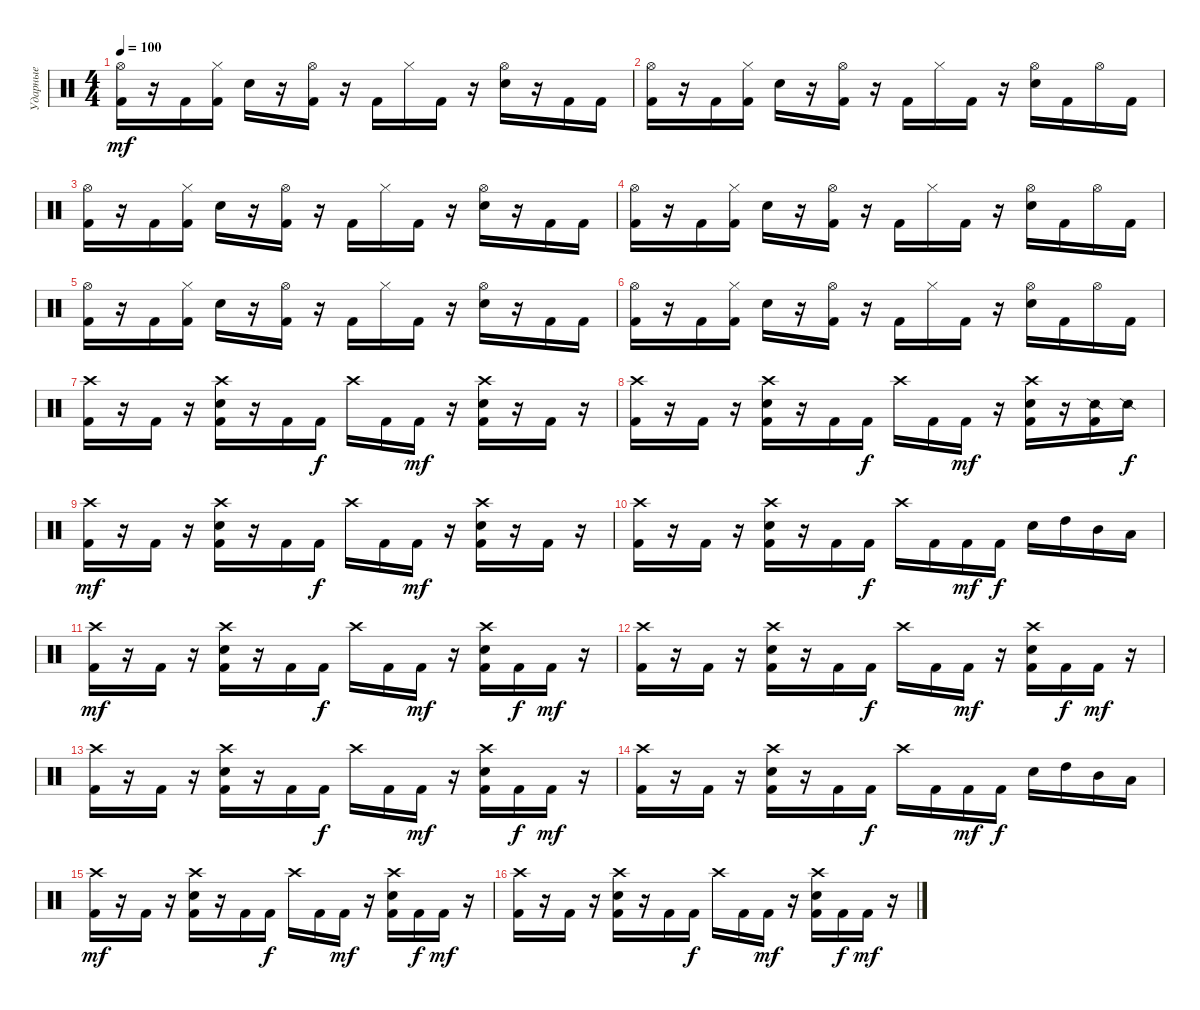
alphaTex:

\track ("Ударные" "Ударные") {instrument percussion}
\staff {score}
\articulation defaults
\ts (4 4)
\tempo 100
\clef neutral
\ks c
("Hi-Hat (open)" "Kick (hit) 2").16{dy mf} r.16 "Kick (hit) 2".16 ("Hi-Hat (closed)" "Kick (hit) 2").16 "Electric Snare (hit)".16 r.16 ("Hi-Hat (open)" "Kick (hit) 2").16 r.16 "Kick (hit) 2".16 "Hi-Hat (closed)".16 "Kick (hit) 2".16 r.16 ("Hi-Hat (open)" "Electric Snare (hit)").16 r.16 "Kick (hit) 2".16 "Kick (hit) 2".16 |
("Hi-Hat (open)" "Kick (hit) 2").16 r.16 "Kick (hit) 2".16 ("Hi-Hat (closed)" "Kick (hit) 2").16 "Electric Snare (hit)".16 r.16 ("Hi-Hat (open)" "Kick (hit) 2").16 r.16 "Kick (hit) 2".16 "Hi-Hat (closed)".16 "Kick (hit) 2".16 r.16 ("Hi-Hat (open)" "Electric Snare (hit)").16 "Kick (hit) 2".16 "Hi-Hat (open)".16 "Kick (hit) 2".16 |
("Hi-Hat (open)" "Kick (hit) 2").16 r.16 "Kick (hit) 2".16 ("Hi-Hat (closed)" "Kick (hit) 2").16 "Electric Snare (hit)".16 r.16 ("Hi-Hat (open)" "Kick (hit) 2").16 r.16 "Kick (hit) 2".16 "Hi-Hat (closed)".16 "Kick (hit) 2".16 r.16 ("Hi-Hat (open)" "Electric Snare (hit)").16 r.16 "Kick (hit) 2".16 "Kick (hit) 2".16 |
("Hi-Hat (open)" "Kick (hit) 2").16 r.16 "Kick (hit) 2".16 ("Hi-Hat (closed)" "Kick (hit) 2").16 "Electric Snare (hit)".16 r.16 ("Hi-Hat (open)" "Kick (hit) 2").16 r.16 "Kick (hit) 2".16 "Hi-Hat (closed)".16 "Kick (hit) 2".16 r.16 ("Hi-Hat (open)" "Electric Snare (hit)").16 "Kick (hit) 2".16 "Hi-Hat (open)".16 "Kick (hit) 2".16 |
("Hi-Hat (open)" "Kick (hit) 2").16 r.16 "Kick (hit) 2".16 ("Hi-Hat (closed)" "Kick (hit) 2").16 "Electric Snare (hit)".16 r.16 ("Hi-Hat (open)" "Kick (hit) 2").16 r.16 "Kick (hit) 2".16 "Hi-Hat (closed)".16 "Kick (hit) 2".16 r.16 ("Hi-Hat (open)" "Electric Snare (hit)").16 r.16 "Kick (hit) 2".16 "Kick (hit) 2".16 |
("Hi-Hat (open)" "Kick (hit) 2").16 r.16 "Kick (hit) 2".16 ("Hi-Hat (closed)" "Kick (hit) 2").16 "Electric Snare (hit)".16 r.16 ("Hi-Hat (open)" "Kick (hit) 2").16 r.16 "Kick (hit) 2".16 "Hi-Hat (closed)".16 "Kick (hit) 2".16 r.16 ("Hi-Hat (open)" "Electric Snare (hit)").16 "Kick (hit) 2".16 "Hi-Hat (open)".16 "Kick (hit) 2".16 |
("Crash high (hit)" "Kick (hit) 2").16 r.16 "Kick (hit) 2".16 r.16 ("Crash high (hit)" "Electric Snare (hit)" "Kick (hit) 2").16 r.16 "Kick (hit) 2".16 "Kick (hit) 2".16{dy f} "Crash high (hit)".16 "Kick (hit) 2".16 "Kick (hit) 2".16{dy mf} r.16 ("Crash high (hit)" "Electric Snare (hit)" "Kick (hit) 2").16 r.16 "Kick (hit) 2".16 r.16 |
("Crash high (hit)" "Kick (hit) 2").16 r.16 "Kick (hit) 2".16 r.16 ("Crash high (hit)" "Electric Snare (hit)" "Kick (hit) 2").16 r.16 "Kick (hit) 2".16 "Kick (hit) 2".16{dy f} "Crash high (hit)".16 "Kick (hit) 2".16 "Kick (hit) 2".16{dy mf} r.16 ("Crash high (hit)" "Electric Snare (hit)" "Kick (hit) 2").16 r.16 ("Snare (side stick) 2" "Kick (hit) 2").16 "Snare (side stick) 2".16{dy f} |
("Crash high (hit)" "Kick (hit) 2").16{dy mf} r.16 "Kick (hit) 2".16 r.16 ("Crash high (hit)" "Electric Snare (hit)" "Kick (hit) 2").16 r.16 "Kick (hit) 2".16 "Kick (hit) 2".16{dy f} "Crash high (hit)".16 "Kick (hit) 2".16 "Kick (hit) 2".16{dy mf} r.16 ("Crash high (hit)" "Electric Snare (hit)" "Kick (hit) 2").16 r.16 "Kick (hit) 2".16 r.16 |
("Crash high (hit)" "Kick (hit) 2").16 r.16 "Kick (hit) 2".16 r.16 ("Crash high (hit)" "Electric Snare (hit)" "Kick (hit) 2").16 r.16 "Kick (hit) 2".16 "Kick (hit) 2".16{dy f} "Crash high (hit)".16 "Kick (hit) 2".16 "Kick (hit) 2".16{dy mf} "Kick (hit) 2".16{dy f} "Electric Snare (hit)".16 "High Tom (hit)".16 "Mid Tom (hit)".16 "Low Tom (hit)".16 |
("Crash high (hit)" "Kick (hit) 2").16{dy mf} r.16 "Kick (hit) 2".16 r.16 ("Crash high (hit)" "Electric Snare (hit)" "Kick (hit) 2").16 r.16 "Kick (hit) 2".16 "Kick (hit) 2".16{dy f} "Crash high (hit)".16 "Kick (hit) 2".16 "Kick (hit) 2".16{dy mf} r.16 ("Crash high (hit)" "Electric Snare (hit)" "Kick (hit) 2").16 "Kick (hit) 2".16{dy f} "Kick (hit) 2".16{dy mf} r.16 |
("Crash high (hit)" "Kick (hit) 2").16 r.16 "Kick (hit) 2".16 r.16 ("Crash high (hit)" "Electric Snare (hit)" "Kick (hit) 2").16 r.16 "Kick (hit) 2".16 "Kick (hit) 2".16{dy f} "Crash high (hit)".16 "Kick (hit) 2".16 "Kick (hit) 2".16{dy mf} r.16 ("Crash high (hit)" "Electric Snare (hit)" "Kick (hit) 2").16 "Kick (hit) 2".16{dy f} "Kick (hit) 2".16{dy mf} r.16 |
("Crash high (hit)" "Kick (hit) 2").16 r.16 "Kick (hit) 2".16 r.16 ("Crash high (hit)" "Electric Snare (hit)" "Kick (hit) 2").16 r.16 "Kick (hit) 2".16 "Kick (hit) 2".16{dy f} "Crash high (hit)".16 "Kick (hit) 2".16 "Kick (hit) 2".16{dy mf} r.16 ("Crash high (hit)" "Electric Snare (hit)" "Kick (hit) 2").16 "Kick (hit) 2".16{dy f} "Kick (hit) 2".16{dy mf} r.16 |
("Crash high (hit)" "Kick (hit) 2").16 r.16 "Kick (hit) 2".16 r.16 ("Crash high (hit)" "Electric Snare (hit)" "Kick (hit) 2").16 r.16 "Kick (hit) 2".16 "Kick (hit) 2".16{dy f} "Crash high (hit)".16 "Kick (hit) 2".16 "Kick (hit) 2".16{dy mf} "Kick (hit) 2".16{dy f} "Electric Snare (hit)".16 "High Tom (hit)".16 "Mid Tom (hit)".16 "Low Tom (hit)".16 |
("Crash high (hit)" "Kick (hit) 2").16{dy mf} r.16 "Kick (hit) 2".16 r.16 ("Crash high (hit)" "Electric Snare (hit)" "Kick (hit) 2").16 r.16 "Kick (hit) 2".16 "Kick (hit) 2".16{dy f} "Crash high (hit)".16 "Kick (hit) 2".16 "Kick (hit) 2".16{dy mf} r.16 ("Crash high (hit)" "Electric Snare (hit)" "Kick (hit) 2").16 "Kick (hit) 2".16{dy f} "Kick (hit) 2".16{dy mf} r.16 |
("Crash high (hit)" "Kick (hit) 2").16 r.16 "Kick (hit) 2".16 r.16 ("Crash high (hit)" "Electric Snare (hit)" "Kick (hit) 2").16 r.16 "Kick (hit) 2".16 "Kick (hit) 2".16{dy f} "Crash high (hit)".16 "Kick (hit) 2".16 "Kick (hit) 2".16{dy mf} r.16 ("Crash high (hit)" "Electric Snare (hit)" "Kick (hit) 2").16 "Kick (hit) 2".16{dy f} "Kick (hit) 2".16{dy mf} r.16
